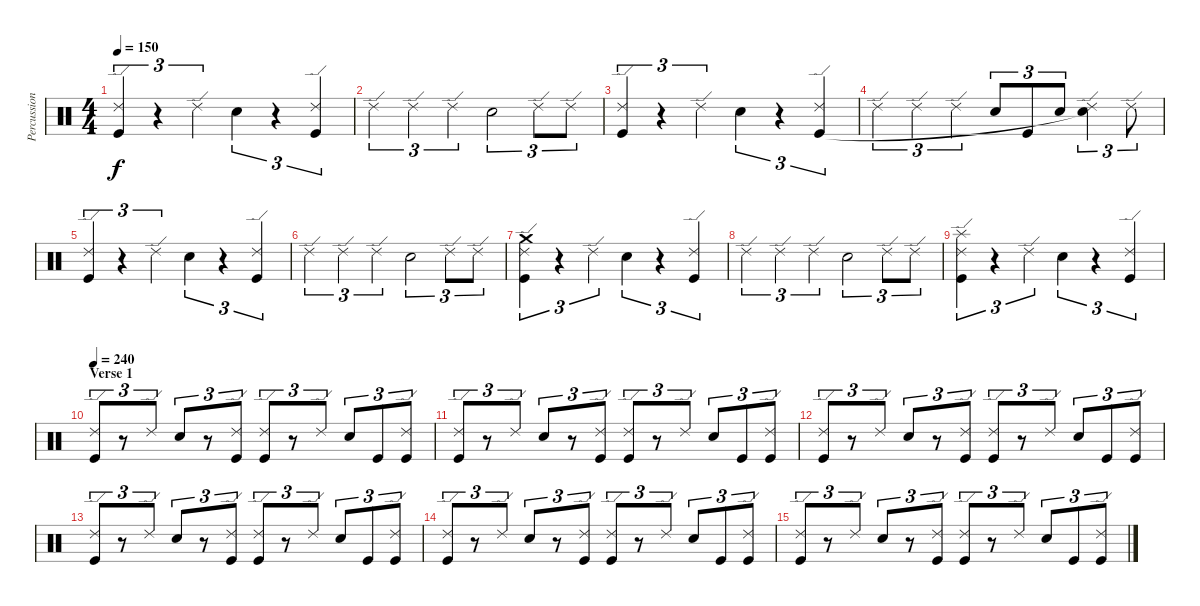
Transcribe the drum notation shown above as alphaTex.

\track ("Percussioni" "Percussion") {instrument percussion}
\staff {score}
\articulation defaults
\ts (4 4)
\tempo 150
\clef neutral
\ks c
("Ride (edge) 2" "Kick (hit)").4{tu (3 2) dy f} r.4{tu (3 2)} "Ride (edge) 2".4{tu (3 2)} "Electric Snare (hit)".4{tu (3 2)} r.4{tu (3 2)} ("Ride (edge) 2" "Kick (hit)").4{tu (3 2)} |
"Ride (edge) 2".4{tu (3 2)} "Ride (edge) 2".4{tu (3 2)} "Ride (edge) 2".4{tu (3 2)} "Electric Snare (hit)".2{tu (3 2)} "Ride (edge) 2".8{tu (3 2)} "Ride (edge) 2".8{tu (3 2)} |
("Ride (edge) 2" "Kick (hit)").4{tu (3 2)} r.4{tu (3 2)} "Ride (edge) 2".4{tu (3 2)} "Electric Snare (hit)".4{tu (3 2)} r.4{tu (3 2)} ("Ride (edge) 2" "Kick (hit)").4{tu (3 2)} |
"Ride (edge) 2".4{tu (3 2)} "Ride (edge) 2".4{tu (3 2)} "Ride (edge) 2".4{tu (3 2)} "Electric Snare (hit)".8{tu (3 2)} "Kick (hit)".8{tu (3 2)} "Electric Snare (hit)".8{tu (3 2)} ("Ride (edge) 2" "Electric Snare (hit)"{t}).4{tu (3 2)} "Ride (edge) 2".8{tu (3 2)} |
("Ride (edge) 2" "Kick (hit)").4{tu (3 2)} r.4{tu (3 2)} "Ride (edge) 2".4{tu (3 2)} "Electric Snare (hit)".4{tu (3 2)} r.4{tu (3 2)} ("Ride (edge) 2" "Kick (hit)").4{tu (3 2)} |
"Ride (edge) 2".4{tu (3 2)} "Ride (edge) 2".4{tu (3 2)} "Ride (edge) 2".4{tu (3 2)} "Electric Snare (hit)".2{tu (3 2)} "Ride (edge) 2".8{tu (3 2)} "Ride (edge) 2".8{tu (3 2)} |
("Ride (edge) 2" "Crash medium (hit)" "Kick (hit)").4{tu (3 2)} r.4{tu (3 2)} "Ride (edge) 2".4{tu (3 2)} "Electric Snare (hit)".4{tu (3 2)} r.4{tu (3 2)} ("Ride (edge) 2" "Kick (hit)").4{tu (3 2)} |
"Ride (edge) 2".4{tu (3 2)} "Ride (edge) 2".4{tu (3 2)} "Ride (edge) 2".4{tu (3 2)} "Electric Snare (hit)".2{tu (3 2)} "Ride (edge) 2".8{tu (3 2)} "Ride (edge) 2".8{tu (3 2)} |
("Ride (edge) 2" "Splash (hit)" "Kick (hit)").4{tu (3 2)} r.4{tu (3 2)} "Ride (edge) 2".4{tu (3 2)} "Electric Snare (hit)".4{tu (3 2)} r.4{tu (3 2)} ("Ride (edge) 2" "Kick (hit)").4{tu (3 2)} |
\section ("" "Verse 1")
\tempo 240
("Ride (edge) 2" "Kick (hit)").8{tu (3 2)} r.8{tu (3 2)} "Ride (edge) 2".8{tu (3 2)} "Electric Snare (hit)".8{tu (3 2)} r.8{tu (3 2)} ("Ride (edge) 2" "Kick (hit)").8{tu (3 2)} ("Ride (edge) 2" "Kick (hit)").8{tu (3 2)} r.8{tu (3 2)} "Ride (edge) 2".8{tu (3 2)} "Electric Snare (hit)".8{tu (3 2)} "Kick (hit)".8{tu (3 2)} ("Ride (edge) 2" "Kick (hit)").8{tu (3 2)} |
("Ride (edge) 2" "Kick (hit)").8{tu (3 2)} r.8{tu (3 2)} "Ride (edge) 2".8{tu (3 2)} "Electric Snare (hit)".8{tu (3 2)} r.8{tu (3 2)} ("Ride (edge) 2" "Kick (hit)").8{tu (3 2)} ("Ride (edge) 2" "Kick (hit)").8{tu (3 2)} r.8{tu (3 2)} "Ride (edge) 2".8{tu (3 2)} "Electric Snare (hit)".8{tu (3 2)} "Kick (hit)".8{tu (3 2)} ("Ride (edge) 2" "Kick (hit)").8{tu (3 2)} |
("Ride (edge) 2" "Kick (hit)").8{tu (3 2)} r.8{tu (3 2)} "Ride (edge) 2".8{tu (3 2)} "Electric Snare (hit)".8{tu (3 2)} r.8{tu (3 2)} ("Ride (edge) 2" "Kick (hit)").8{tu (3 2)} ("Ride (edge) 2" "Kick (hit)").8{tu (3 2)} r.8{tu (3 2)} "Ride (edge) 2".8{tu (3 2)} "Electric Snare (hit)".8{tu (3 2)} "Kick (hit)".8{tu (3 2)} ("Ride (edge) 2" "Kick (hit)").8{tu (3 2)} |
("Ride (edge) 2" "Kick (hit)").8{tu (3 2)} r.8{tu (3 2)} "Ride (edge) 2".8{tu (3 2)} "Electric Snare (hit)".8{tu (3 2)} r.8{tu (3 2)} ("Ride (edge) 2" "Kick (hit)").8{tu (3 2)} ("Ride (edge) 2" "Kick (hit)").8{tu (3 2)} r.8{tu (3 2)} "Ride (edge) 2".8{tu (3 2)} "Electric Snare (hit)".8{tu (3 2)} "Kick (hit)".8{tu (3 2)} ("Ride (edge) 2" "Kick (hit)").8{tu (3 2)} |
("Ride (edge) 2" "Kick (hit)").8{tu (3 2)} r.8{tu (3 2)} "Ride (edge) 2".8{tu (3 2)} "Electric Snare (hit)".8{tu (3 2)} r.8{tu (3 2)} ("Ride (edge) 2" "Kick (hit)").8{tu (3 2)} ("Ride (edge) 2" "Kick (hit)").8{tu (3 2)} r.8{tu (3 2)} "Ride (edge) 2".8{tu (3 2)} "Electric Snare (hit)".8{tu (3 2)} "Kick (hit)".8{tu (3 2)} ("Ride (edge) 2" "Kick (hit)").8{tu (3 2)} |
("Ride (edge) 2" "Kick (hit)").8{tu (3 2)} r.8{tu (3 2)} "Ride (edge) 2".8{tu (3 2)} "Electric Snare (hit)".8{tu (3 2)} r.8{tu (3 2)} ("Ride (edge) 2" "Kick (hit)").8{tu (3 2)} ("Ride (edge) 2" "Kick (hit)").8{tu (3 2)} r.8{tu (3 2)} "Ride (edge) 2".8{tu (3 2)} "Electric Snare (hit)".8{tu (3 2)} "Kick (hit)".8{tu (3 2)} ("Ride (edge) 2" "Kick (hit)").8{tu (3 2)}
